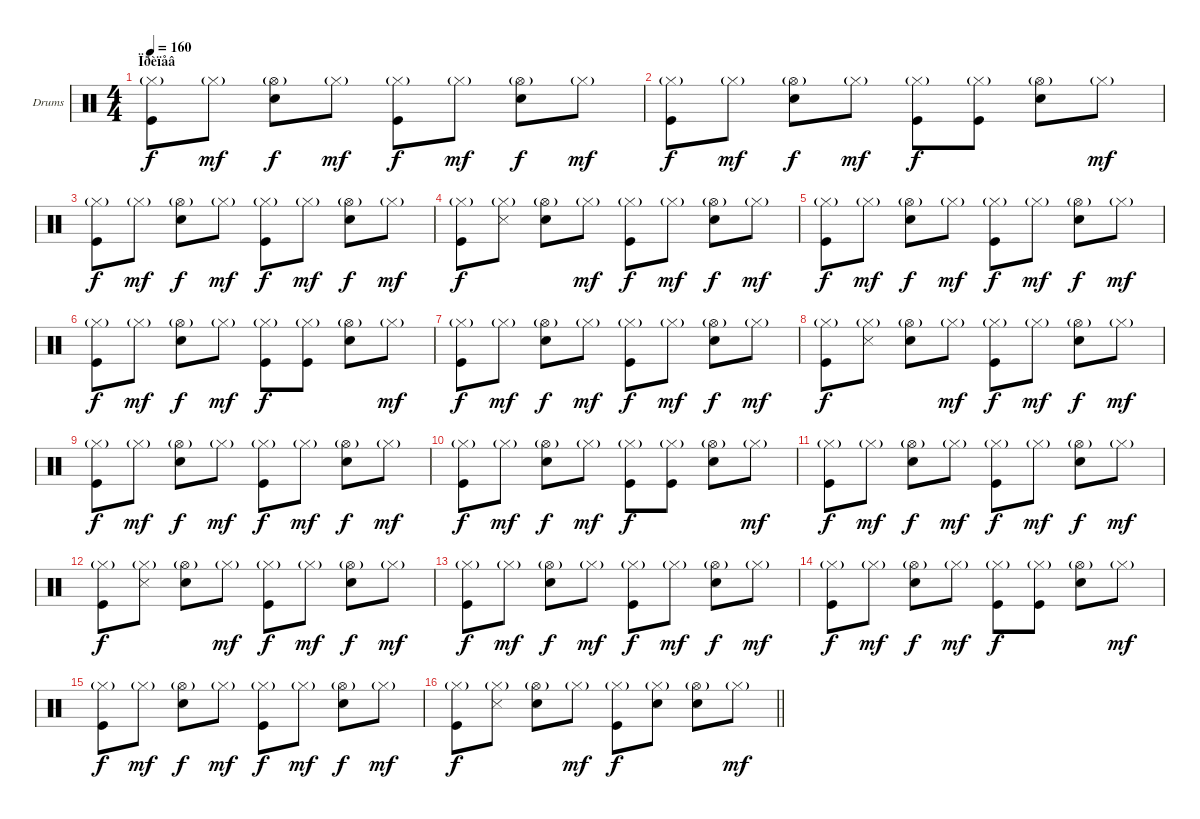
\bracketExtendMode groupsimilarinstruments
\firstSystemTrackNameOrientation horizontal
\otherSystemsTrackNameOrientation horizontal
\track ("Гурьянов" "Drums") {instrument percussion}
\staff {score}
\articulation defaults
\ts (4 4)
\section ("" "Ïðèïåâ")
\tempo 160
\clef neutral
\scale
0.333333
\ks c
("Hi-Hat (closed)"{g} "Kick (hit)").8{dy f} "Hi-Hat (closed)"{g}.8{dy mf} ("Hi-Hat (open)"{g} "Snare (hit) 2").8{dy f} "Hi-Hat (closed)"{g}.8{dy mf} ("Hi-Hat (closed)"{g} "Kick (hit)").8{dy f} "Hi-Hat (closed)"{g}.8{dy mf} ("Hi-Hat (open)"{g} "Snare (hit) 2").8{dy f} "Hi-Hat (closed)"{g}.8{dy mf} |
\scale
0.333333 ("Hi-Hat (closed)"{g} "Kick (hit)").8{dy f} "Hi-Hat (closed)"{g}.8{dy mf} ("Hi-Hat (open)"{g} "Snare (hit) 2").8{dy f} "Hi-Hat (closed)"{g}.8{dy mf} ("Hi-Hat (closed)"{g} "Kick (hit)").8{dy f} ("Hi-Hat (closed)"{g} "Kick (hit)").8 ("Hi-Hat (open)"{g} "Snare (hit) 2").8 "Hi-Hat (closed)"{g}.8{dy mf} |
\scale
0.333333 ("Hi-Hat (closed)"{g} "Kick (hit)").8{dy f} "Hi-Hat (closed)"{g}.8{dy mf} ("Hi-Hat (open)"{g} "Snare (hit) 2").8{dy f} "Hi-Hat (closed)"{g}.8{dy mf} ("Hi-Hat (closed)"{g} "Kick (hit)").8{dy f} "Hi-Hat (closed)"{g}.8{dy mf} ("Hi-Hat (open)"{g} "Snare (hit) 2").8{dy f} "Hi-Hat (closed)"{g}.8{dy mf} |
\scale
0.333333 ("Hi-Hat (closed)"{g} "Kick (hit)").8{dy f} ("Hi-Hat (closed)"{g} "Snare (side stick) 3").8 ("Hi-Hat (open)"{g} "Snare (hit) 2").8 "Hi-Hat (closed)"{g}.8{dy mf} ("Hi-Hat (closed)"{g} "Kick (hit)").8{dy f} "Hi-Hat (closed)"{g}.8{dy mf} ("Hi-Hat (open)"{g} "Snare (hit) 2").8{dy f} "Hi-Hat (closed)"{g}.8{dy mf} |
\scale
0.333333 ("Hi-Hat (closed)"{g} "Kick (hit)").8{dy f} "Hi-Hat (closed)"{g}.8{dy mf} ("Hi-Hat (open)"{g} "Snare (hit) 2").8{dy f} "Hi-Hat (closed)"{g}.8{dy mf} ("Hi-Hat (closed)"{g} "Kick (hit)").8{dy f} "Hi-Hat (closed)"{g}.8{dy mf} ("Hi-Hat (open)"{g} "Snare (hit) 2").8{dy f} "Hi-Hat (closed)"{g}.8{dy mf} |
\scale
0.333333 ("Hi-Hat (closed)"{g} "Kick (hit)").8{dy f} "Hi-Hat (closed)"{g}.8{dy mf} ("Hi-Hat (open)"{g} "Snare (hit) 2").8{dy f} "Hi-Hat (closed)"{g}.8{dy mf} ("Hi-Hat (closed)"{g} "Kick (hit)").8{dy f} ("Hi-Hat (closed)"{g} "Kick (hit)").8 ("Hi-Hat (open)"{g} "Snare (hit) 2").8 "Hi-Hat (closed)"{g}.8{dy mf} |
\scale
0.333333 ("Hi-Hat (closed)"{g} "Kick (hit)").8{dy f} "Hi-Hat (closed)"{g}.8{dy mf} ("Hi-Hat (open)"{g} "Snare (hit) 2").8{dy f} "Hi-Hat (closed)"{g}.8{dy mf} ("Hi-Hat (closed)"{g} "Kick (hit)").8{dy f} "Hi-Hat (closed)"{g}.8{dy mf} ("Hi-Hat (open)"{g} "Snare (hit) 2").8{dy f} "Hi-Hat (closed)"{g}.8{dy mf} |
\scale
0.333333 ("Hi-Hat (closed)"{g} "Kick (hit)").8{dy f} ("Hi-Hat (closed)"{g} "Snare (side stick) 3").8 ("Hi-Hat (open)"{g} "Snare (hit) 2").8 "Hi-Hat (closed)"{g}.8{dy mf} ("Hi-Hat (closed)"{g} "Kick (hit)").8{dy f} "Hi-Hat (closed)"{g}.8{dy mf} ("Hi-Hat (open)"{g} "Snare (hit) 2").8{dy f} "Hi-Hat (closed)"{g}.8{dy mf} |
\scale
0.333333 ("Hi-Hat (closed)"{g} "Kick (hit)").8{dy f} "Hi-Hat (closed)"{g}.8{dy mf} ("Hi-Hat (open)"{g} "Snare (hit) 2").8{dy f} "Hi-Hat (closed)"{g}.8{dy mf} ("Hi-Hat (closed)"{g} "Kick (hit)").8{dy f} "Hi-Hat (closed)"{g}.8{dy mf} ("Hi-Hat (open)"{g} "Snare (hit) 2").8{dy f} "Hi-Hat (closed)"{g}.8{dy mf} |
\scale
0.333333 ("Hi-Hat (closed)"{g} "Kick (hit)").8{dy f} "Hi-Hat (closed)"{g}.8{dy mf} ("Hi-Hat (open)"{g} "Snare (hit) 2").8{dy f} "Hi-Hat (closed)"{g}.8{dy mf} ("Hi-Hat (closed)"{g} "Kick (hit)").8{dy f} ("Hi-Hat (closed)"{g} "Kick (hit)").8 ("Hi-Hat (open)"{g} "Snare (hit) 2").8 "Hi-Hat (closed)"{g}.8{dy mf} |
\scale
0.333333 ("Hi-Hat (closed)"{g} "Kick (hit)").8{dy f} "Hi-Hat (closed)"{g}.8{dy mf} ("Hi-Hat (open)"{g} "Snare (hit) 2").8{dy f} "Hi-Hat (closed)"{g}.8{dy mf} ("Hi-Hat (closed)"{g} "Kick (hit)").8{dy f} "Hi-Hat (closed)"{g}.8{dy mf} ("Hi-Hat (open)"{g} "Snare (hit) 2").8{dy f} "Hi-Hat (closed)"{g}.8{dy mf} |
\scale
0.333333 ("Hi-Hat (closed)"{g} "Kick (hit)").8{dy f} ("Hi-Hat (closed)"{g} "Snare (side stick) 3").8 ("Hi-Hat (open)"{g} "Snare (hit) 2").8 "Hi-Hat (closed)"{g}.8{dy mf} ("Hi-Hat (closed)"{g} "Kick (hit)").8{dy f} "Hi-Hat (closed)"{g}.8{dy mf} ("Hi-Hat (open)"{g} "Snare (hit) 2").8{dy f} "Hi-Hat (closed)"{g}.8{dy mf} |
\scale
0.333333 ("Hi-Hat (closed)"{g} "Kick (hit)").8{dy f} "Hi-Hat (closed)"{g}.8{dy mf} ("Hi-Hat (open)"{g} "Snare (hit) 2").8{dy f} "Hi-Hat (closed)"{g}.8{dy mf} ("Hi-Hat (closed)"{g} "Kick (hit)").8{dy f} "Hi-Hat (closed)"{g}.8{dy mf} ("Hi-Hat (open)"{g} "Snare (hit) 2").8{dy f} "Hi-Hat (closed)"{g}.8{dy mf} |
\scale
0.333333 ("Hi-Hat (closed)"{g} "Kick (hit)").8{dy f} "Hi-Hat (closed)"{g}.8{dy mf} ("Hi-Hat (open)"{g} "Snare (hit) 2").8{dy f} "Hi-Hat (closed)"{g}.8{dy mf} ("Hi-Hat (closed)"{g} "Kick (hit)").8{dy f} ("Hi-Hat (closed)"{g} "Kick (hit)").8 ("Hi-Hat (open)"{g} "Snare (hit) 2").8 "Hi-Hat (closed)"{g}.8{dy mf} |
\scale
0.333333 ("Hi-Hat (closed)"{g} "Kick (hit)").8{dy f} "Hi-Hat (closed)"{g}.8{dy mf} ("Hi-Hat (open)"{g} "Snare (hit) 2").8{dy f} "Hi-Hat (closed)"{g}.8{dy mf} ("Hi-Hat (closed)"{g} "Kick (hit)").8{dy f} "Hi-Hat (closed)"{g}.8{dy mf} ("Hi-Hat (open)"{g} "Snare (hit) 2").8{dy f} "Hi-Hat (closed)"{g}.8{dy mf} |
\scale
0.333333
\barLineRight lightlight
("Hi-Hat (closed)"{g} "Kick (hit)").8{dy f} ("Hi-Hat (closed)"{g} "Snare (side stick) 3").8 ("Hi-Hat (open)"{g} "Snare (hit) 2").8 "Hi-Hat (closed)"{g}.8{dy mf} ("Hi-Hat (closed)"{g} "Kick (hit)").8{dy f} ("Hi-Hat (closed)"{g} "Snare (hit) 2").8 ("Hi-Hat (open)"{g} "Snare (hit) 2").8 "Hi-Hat (closed)"{g}.8{dy mf}
